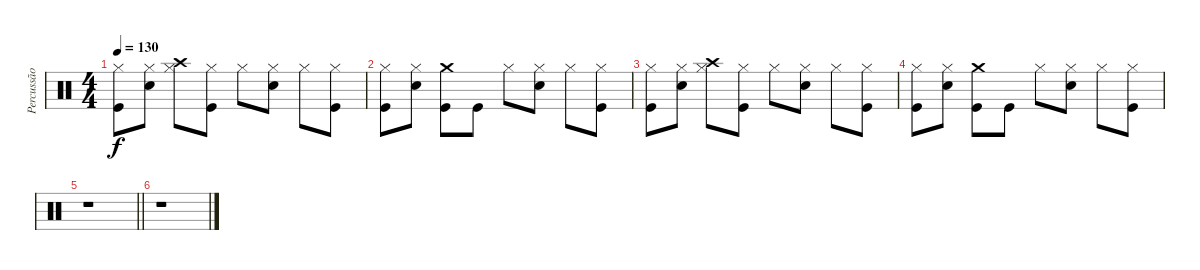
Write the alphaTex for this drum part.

\track ("Percussão" "Percussão") {instrument percussion}
\staff {score}
\articulation defaults
\ts (4 4)
\tempo 130
\clef neutral
\ks c
("Hi-Hat (closed)" "Kick (hit)").8{dy f} ("Hi-Hat (closed)" "Snare (hit) 2").8 ("Hi-Hat (closed)" "Crash high (hit)").8 ("Hi-Hat (closed)" "Kick (hit)").8 "Hi-Hat (closed)".8 ("Hi-Hat (closed)" "Snare (hit) 2").8 "Hi-Hat (closed)".8 ("Hi-Hat (closed)" "Kick (hit)").8 |
("Hi-Hat (closed)" "Kick (hit)").8 ("Hi-Hat (closed)" "Snare (hit) 2").8 ("Kick (hit)" "Crash medium (hit)").8 "Kick (hit)".8 "Hi-Hat (closed)".8 ("Hi-Hat (closed)" "Snare (hit) 2").8 "Hi-Hat (closed)".8 ("Hi-Hat (closed)" "Kick (hit)").8 |
("Hi-Hat (closed)" "Kick (hit)").8 ("Hi-Hat (closed)" "Snare (hit) 2").8 ("Hi-Hat (closed)" "Crash high (hit)").8 ("Hi-Hat (closed)" "Kick (hit)").8 "Hi-Hat (closed)".8 ("Hi-Hat (closed)" "Snare (hit) 2").8 "Hi-Hat (closed)".8 ("Hi-Hat (closed)" "Kick (hit)").8 |
("Hi-Hat (closed)" "Kick (hit)").8 ("Hi-Hat (closed)" "Snare (hit) 2").8 ("Kick (hit)" "Crash medium (hit)").8 "Kick (hit)".8 "Hi-Hat (closed)".8 ("Hi-Hat (closed)" "Snare (hit) 2").8 "Hi-Hat (closed)".8 ("Hi-Hat (closed)" "Kick (hit)").8 |
\barLineRight lightlight
r.1 |
r.1
